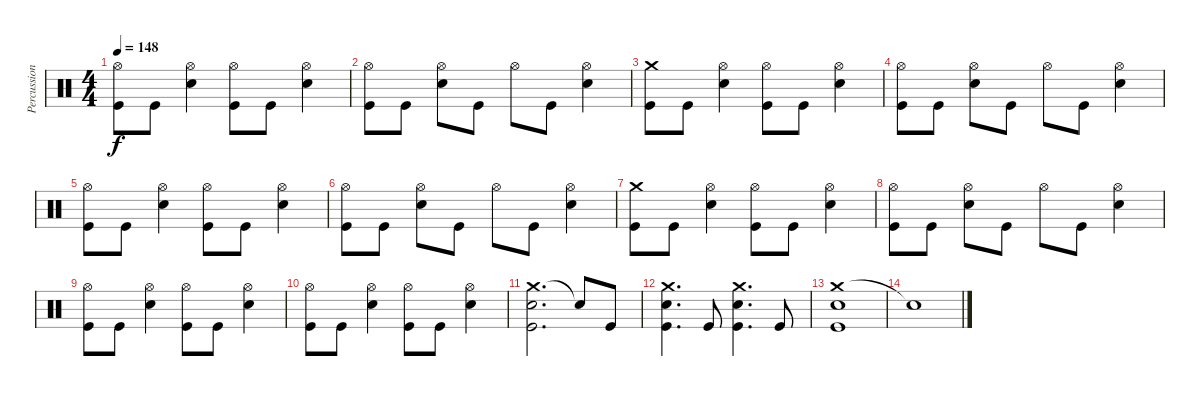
\track ("Percussion" "Percussion") {instrument percussion}
\staff {score}
\articulation defaults
\ts (4 4)
\tempo 148
\clef neutral
\ks c
("Hi-Hat (open)" "Kick (hit)").8{dy f} "Kick (hit)".8 ("Hi-Hat (open)" "Electric Snare (hit)").4 ("Hi-Hat (open)" "Kick (hit)").8 "Kick (hit)".8 ("Hi-Hat (open)" "Electric Snare (hit)").4 |
("Hi-Hat (open)" "Kick (hit)").8 "Kick (hit)".8 ("Hi-Hat (open)" "Electric Snare (hit)").8 "Kick (hit)".8 "Hi-Hat (open)".8 "Kick (hit)".8 ("Hi-Hat (open)" "Electric Snare (hit)").4 |
("Crash medium (hit)" "Kick (hit)").8 "Kick (hit)".8 ("Hi-Hat (open)" "Electric Snare (hit)").4 ("Hi-Hat (open)" "Kick (hit)").8 "Kick (hit)".8 ("Hi-Hat (open)" "Electric Snare (hit)").4 |
("Hi-Hat (open)" "Kick (hit)").8 "Kick (hit)".8 ("Hi-Hat (open)" "Electric Snare (hit)").8 "Kick (hit)".8 "Hi-Hat (open)".8 "Kick (hit)".8 ("Hi-Hat (open)" "Electric Snare (hit)").4 |
("Hi-Hat (open)" "Kick (hit)").8 "Kick (hit)".8 ("Hi-Hat (open)" "Electric Snare (hit)").4 ("Hi-Hat (open)" "Kick (hit)").8 "Kick (hit)".8 ("Hi-Hat (open)" "Electric Snare (hit)").4 |
("Hi-Hat (open)" "Kick (hit)").8 "Kick (hit)".8 ("Hi-Hat (open)" "Electric Snare (hit)").8 "Kick (hit)".8 "Hi-Hat (open)".8 "Kick (hit)".8 ("Hi-Hat (open)" "Electric Snare (hit)").4 |
("Crash medium (hit)" "Kick (hit)").8 "Kick (hit)".8 ("Hi-Hat (open)" "Electric Snare (hit)").4 ("Hi-Hat (open)" "Kick (hit)").8 "Kick (hit)".8 ("Hi-Hat (open)" "Electric Snare (hit)").4 |
("Hi-Hat (open)" "Kick (hit)").8 "Kick (hit)".8 ("Hi-Hat (open)" "Electric Snare (hit)").8 "Kick (hit)".8 "Hi-Hat (open)".8 "Kick (hit)".8 ("Hi-Hat (open)" "Electric Snare (hit)").4 |
("Hi-Hat (open)" "Kick (hit)").8 "Kick (hit)".8 ("Hi-Hat (open)" "Electric Snare (hit)").4 ("Hi-Hat (open)" "Kick (hit)").8 "Kick (hit)".8 ("Hi-Hat (open)" "Electric Snare (hit)").4 |
("Hi-Hat (open)" "Kick (hit)").8 "Kick (hit)".8 ("Hi-Hat (open)" "Electric Snare (hit)").4 ("Hi-Hat (open)" "Kick (hit)").8 "Kick (hit)".8 ("Hi-Hat (open)" "Electric Snare (hit)").4 |
("Crash medium (hit)" "Electric Snare (hit)" "Kick (hit)").2{d} "Snare (hit)"{t}.8 "Kick (hit)".8 |
("Crash medium (hit)" "Electric Snare (hit)" "Kick (hit)").4{d} "Kick (hit)".8 ("Crash medium (hit)" "Electric Snare (hit)" "Kick (hit)").4{d} "Kick (hit)".8 |
("Crash medium (hit)" "Electric Snare (hit)" "Kick (hit)").1 |
"Snare (hit)"{t}.1
